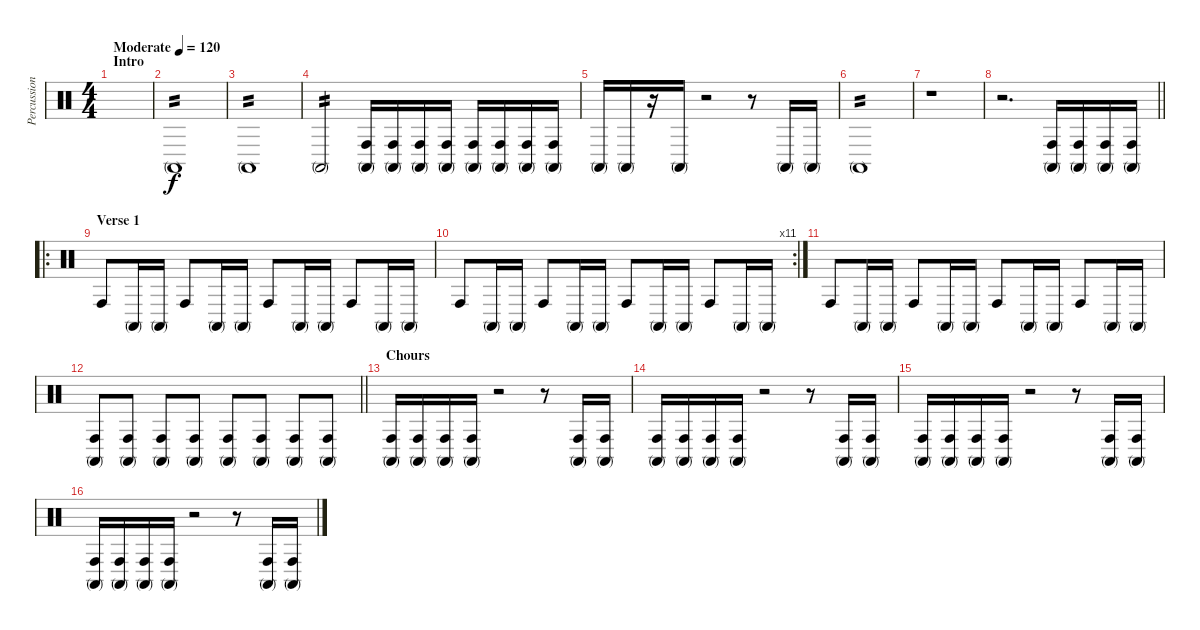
\track ("Percussion" "Percussion") {instrument percussion}
\staff {score}
\articulation defaults
\ts (4 4)
\section ("" "Intro")
\tempo (120 "Moderate")
\tempo 110
\tempo (120 "Moderate")
\clef neutral
\ks c
|
"Conga high (mute)".1{tp 2} |
"Conga high (mute)".1{tp 2} |
"Conga high (mute)".2{tp 2 volume 16} ("Conga high (hit)" "Conga high (mute)").16 ("Conga high (hit)" "Conga high (mute)").16 ("Conga high (hit)" "Conga high (mute)").16 ("Conga high (hit)" "Conga high (mute)").16 ("Conga high (hit)" "Conga high (mute)").16 ("Conga high (hit)" "Conga high (mute)").16 ("Conga high (hit)" "Conga high (mute)").16 ("Conga high (hit)" "Conga high (mute)").16 |
"Conga high (mute)".16 "Conga high (mute)".16 r.16 "Conga high (mute)".16 r.2{volume 6} r.8 "Conga high (mute)".16 "Conga high (mute)".16 |
"Conga high (mute)".1{tp 2} |
r.1 |
\barLineRight lightlight
r.2{d} ("Conga high (hit)" "Conga high (mute)").16{volume 10} ("Conga high (hit)" "Conga high (mute)").16 ("Conga high (hit)" "Conga high (mute)").16 ("Conga high (hit)" "Conga high (mute)").16 |
\ro
\section ("" "Verse 1")
"Conga high (hit)".8 "Conga high (mute)".16 "Conga high (mute)".16 "Conga high (hit)".8 "Conga high (mute)".16 "Conga high (mute)".16 "Conga high (hit)".8 "Conga high (mute)".16 "Conga high (mute)".16 "Conga high (hit)".8 "Conga high (mute)".16 "Conga high (mute)".16 |
\rc 11 "Conga high (hit)".8 "Conga high (mute)".16 "Conga high (mute)".16 "Conga high (hit)".8 "Conga high (mute)".16 "Conga high (mute)".16 "Conga high (hit)".8 "Conga high (mute)".16 "Conga high (mute)".16 "Conga high (hit)".8 "Conga high (mute)".16 "Conga high (mute)".16
|
"Conga high (hit)".8 "Conga high (mute)".16 "Conga high (mute)".16 "Conga high (hit)".8 "Conga high (mute)".16 "Conga high (mute)".16 "Conga high (hit)".8 "Conga high (mute)".16 "Conga high (mute)".16 "Conga high (hit)".8 "Conga high (mute)".16 "Conga high (mute)".16 |
\barLineRight lightlight
("Conga high (hit)" "Conga high (mute)").8 ("Conga high (hit)" "Conga high (mute)").8 ("Conga high (hit)" "Conga high (mute)").8 ("Conga high (hit)" "Conga high (mute)").8 ("Conga high (hit)" "Conga high (mute)").8 ("Conga high (hit)" "Conga high (mute)").8 ("Conga high (hit)" "Conga high (mute)").8 ("Conga high (hit)" "Conga high (mute)").8 |
\section ("" "Chours")
("Conga high (hit)" "Conga high (mute)").16 ("Conga high (hit)" "Conga high (mute)").16 ("Conga high (hit)" "Conga high (mute)").16 ("Conga high (hit)" "Conga high (mute)").16 r.2 r.8 ("Conga high (hit)" "Conga high (mute)").16 ("Conga high (hit)" "Conga high (mute)").16 |
("Conga high (hit)" "Conga high (mute)").16 ("Conga high (hit)" "Conga high (mute)").16 ("Conga high (hit)" "Conga high (mute)").16 ("Conga high (hit)" "Conga high (mute)").16 r.2 r.8 ("Conga high (hit)" "Conga high (mute)").16 ("Conga high (hit)" "Conga high (mute)").16 |
("Conga high (hit)" "Conga high (mute)").16 ("Conga high (hit)" "Conga high (mute)").16 ("Conga high (hit)" "Conga high (mute)").16 ("Conga high (hit)" "Conga high (mute)").16 r.2 r.8 ("Conga high (hit)" "Conga high (mute)").16 ("Conga high (hit)" "Conga high (mute)").16 |
("Conga high (hit)" "Conga high (mute)").16 ("Conga high (hit)" "Conga high (mute)").16 ("Conga high (hit)" "Conga high (mute)").16 ("Conga high (hit)" "Conga high (mute)").16 r.2 r.8 ("Conga high (hit)" "Conga high (mute)").16 ("Conga high (hit)" "Conga high (mute)").16
